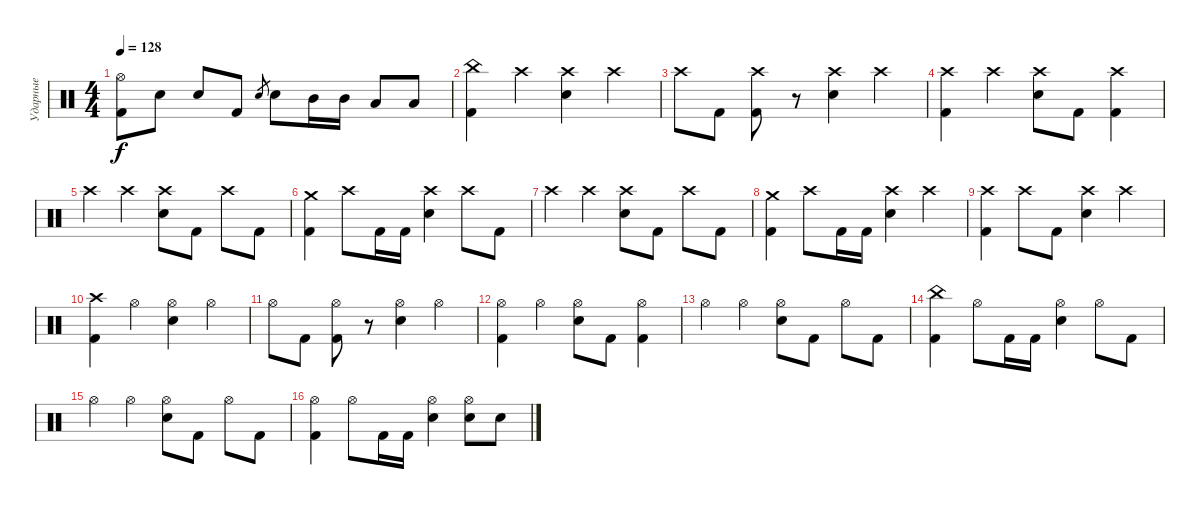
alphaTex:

\track ("Ударные" "Ударные") {instrument percussion}
\staff {score}
\articulation defaults
\ts (4 4)
\tempo 128
\clef neutral
\ks c
("Hi-Hat (open)" "Kick (hit) 2").8{dy f} "Snare (hit) 2".8 "Snare (hit) 2".8 "Kick (hit) 2".8 "Snare (hit) 2".8{gr} "Snare (hit) 2".8 "Mid Tom (hit)".16 "Mid Tom (hit)".16 "Low Tom (hit)".8 "Low Tom (hit)".8 |
("China (hit)" "Kick (hit) 2").4 "Crash high (hit)".4 ("Crash high (hit)" "Snare (hit) 2").4 "Crash high (hit)".4 |
"Crash high (hit)".8 "Kick (hit) 2".8 ("Crash high (hit)" "Kick (hit) 2").8 r.8 ("Crash high (hit)" "Snare (hit) 2").4 "Crash high (hit)".4 |
("Crash high (hit)" "Kick (hit) 2").4 "Crash high (hit)".4 ("Crash high (hit)" "Snare (hit) 2").8 "Kick (hit) 2".8 ("Crash high (hit)" "Kick (hit) 2").4 |
"Crash high (hit)".4 "Crash high (hit)".4 ("Crash high (hit)" "Snare (hit) 2").8 "Kick (hit) 2".8 "Crash high (hit)".8 "Kick (hit) 2".8 |
("Crash medium (hit)" "Kick (hit) 2").4 "Crash high (hit)".8 "Kick (hit) 2".16 "Kick (hit) 2".16 ("Crash high (hit)" "Snare (hit) 2").4 "Crash high (hit)".8 "Kick (hit) 2".8 |
"Crash high (hit)".4 "Crash high (hit)".4 ("Crash high (hit)" "Snare (hit) 2").8 "Kick (hit) 2".8 "Crash high (hit)".8 "Kick (hit) 2".8 |
("Crash medium (hit)" "Kick (hit) 2").4 "Crash high (hit)".8 "Kick (hit) 2".16 "Kick (hit) 2".16 ("Crash high (hit)" "Snare (hit) 2").4 "Crash high (hit)".4 |
("Crash high (hit)" "Kick (hit) 2").4 "Crash high (hit)".8 "Kick (hit) 2".8 ("Crash high (hit)" "Snare (hit) 2").4 "Crash high (hit)".4 |
("Crash high (hit)" "Kick (hit) 2").4 "Hi-Hat (open)".4 ("Hi-Hat (open)" "Snare (hit) 2").4 "Hi-Hat (open)".4 |
"Hi-Hat (open)".8 "Kick (hit) 2".8 ("Hi-Hat (open)" "Kick (hit) 2").8 r.8 ("Hi-Hat (open)" "Snare (hit) 2").4 "Hi-Hat (open)".4 |
("Hi-Hat (open)" "Kick (hit) 2").4 "Hi-Hat (open)".4 ("Hi-Hat (open)" "Snare (hit) 2").8 "Kick (hit) 2".8 ("Hi-Hat (open)" "Kick (hit) 2").4 |
"Hi-Hat (open)".4 "Hi-Hat (open)".4 ("Hi-Hat (open)" "Snare (hit) 2").8 "Kick (hit) 2".8 "Hi-Hat (open)".8 "Kick (hit) 2".8 |
("China (hit)" "Kick (hit) 2").4 "Hi-Hat (open)".8 "Kick (hit) 2".16 "Kick (hit) 2".16 ("Hi-Hat (open)" "Snare (hit) 2").4 "Hi-Hat (open)".8 "Kick (hit) 2".8 |
"Hi-Hat (open)".4 "Hi-Hat (open)".4 ("Hi-Hat (open)" "Snare (hit) 2").8 "Kick (hit) 2".8 "Hi-Hat (open)".8 "Kick (hit) 2".8 |
("Hi-Hat (open)" "Kick (hit) 2").4 "Hi-Hat (open)".8 "Kick (hit) 2".16 "Kick (hit) 2".16 ("Hi-Hat (open)" "Snare (hit) 2").4 ("Hi-Hat (open)" "Snare (hit) 2").8 "Snare (hit) 2".8
